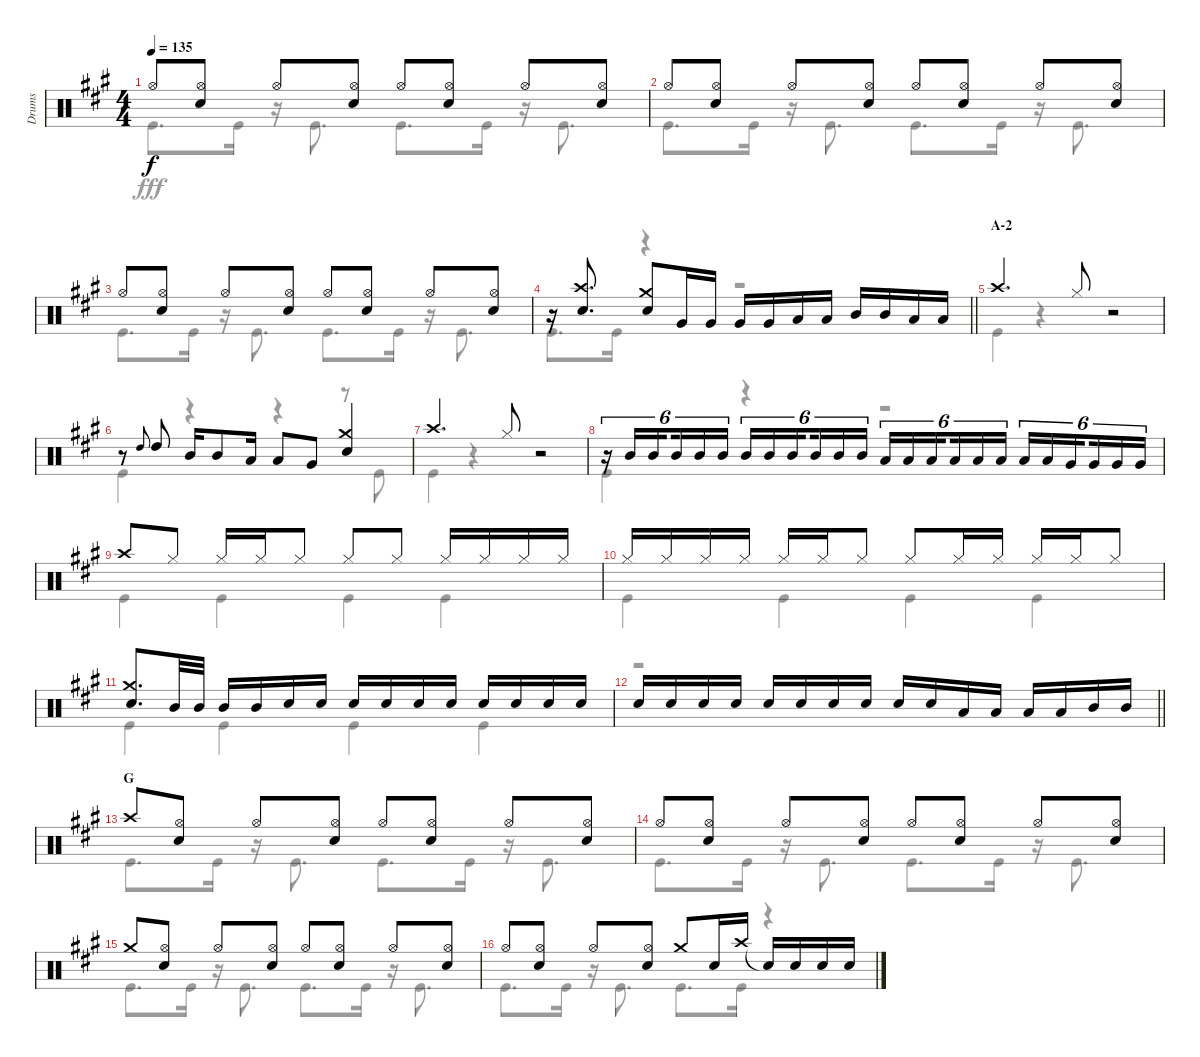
\track ("Drums" "Drums") {instrument percussion}
\staff {score}
\articulation defaults
\voice
\ts (4 4)
\tempo 135
\clef neutral
\ks a "Hi-Hat (open)".8{dy f}
("Hi-Hat (open)" "Snare (hit) 2").8 "Hi-Hat (open)".8 ("Hi-Hat (open)" "Snare (hit) 2").8 "Hi-Hat (open)".8 ("Hi-Hat (open)" "Snare (hit) 2").8 "Hi-Hat (open)".8 ("Hi-Hat (open)" "Snare (hit) 2").8 |
"Hi-Hat (open)".8 ("Hi-Hat (open)" "Snare (hit) 2").8 "Hi-Hat (open)".8 ("Hi-Hat (open)" "Snare (hit) 2").8 "Hi-Hat (open)".8 ("Hi-Hat (open)" "Snare (hit) 2").8 "Hi-Hat (open)".8 ("Hi-Hat (open)" "Snare (hit) 2").8 |
"Hi-Hat (open)".8 ("Hi-Hat (open)" "Snare (hit) 2").8 "Hi-Hat (open)".8 ("Hi-Hat (open)" "Snare (hit) 2").8 "Hi-Hat (open)".8 ("Hi-Hat (open)" "Snare (hit) 2").8 "Hi-Hat (open)".8 ("Hi-Hat (open)" "Snare (hit) 2").8 |
\barLineRight lightlight
r.16 ("Crash high (hit)" "Snare (hit) 2").8{d} ("Crash medium (hit)" "Snare (hit) 2").8 "Very Low Tom (hit)".16 "Very Low Tom (hit)".16 "Very Low Tom (hit)".16 "Very Low Tom (hit)".16 "Low Tom (hit)".16 "Low Tom (hit)".16 "Mid Tom (hit)".16 "Mid Tom (hit)".16 "Low Tom (hit)".16 "Low Tom (hit)".16 |
\section ("" "A-2")
"Crash high (hit)".4{d} "Hi-Hat (closed)".8 r.2 |
r.8 "High Tom (hit)".8{gr onbeat} "High Tom (hit)".8 "Mid Tom (hit)".16 "Mid Tom (hit)".8 "Low Tom (hit)".16 "Low Tom (hit)".8 "Very Low Tom (hit)".8 ("Crash medium (hit)" "Snare (hit) 2").4 |
"Crash high (hit)".4{d} "Hi-Hat (closed)".8 r.2 |
r.16{tu (6 4)} "Mid Tom (hit)".16{tu (6 4)} "Mid Tom (hit)".16{tu (6 4) beam splitsecondary} "Mid Tom (hit)".16{tu (6 4)} "Mid Tom (hit)".16{tu (6 4)} "Mid Tom (hit)".16{tu (6 4)} "Mid Tom (hit)".16{tu (6 4)} "Mid Tom (hit)".16{tu (6 4)} "Mid Tom (hit)".16{tu (6 4) beam splitsecondary} "Mid Tom (hit)".16{tu (6 4)} "Mid Tom (hit)".16{tu (6 4)} "Mid Tom (hit)".16{tu (6 4)} "Low Tom (hit)".16{tu (6 4)} "Low Tom (hit)".16{tu (6 4)} "Low Tom (hit)".16{tu (6 4) beam splitsecondary} "Low Tom (hit)".16{tu (6 4)} "Low Tom (hit)".16{tu (6 4)} "Low Tom (hit)".16{tu (6 4)} "Low Tom (hit)".16{tu (6 4)} "Low Tom (hit)".16{tu (6 4)} "Very Low Tom (hit)".16{tu (6 4) beam splitsecondary} "Very Low Tom (hit)".16{tu (6 4)} "Very Low Tom (hit)".16{tu (6 4)} "Very Low Tom (hit)".16{tu (6 4)} |
"Crash high (hit)".8 "Hi-Hat (closed)".8 "Hi-Hat (closed)".16 "Hi-Hat (closed)".16 "Hi-Hat (closed)".8 "Hi-Hat (closed)".8 "Hi-Hat (closed)".8 "Hi-Hat (closed)".16 "Hi-Hat (closed)".16 "Hi-Hat (closed)".16 "Hi-Hat (closed)".16 |
"Hi-Hat (closed)".16 "Hi-Hat (closed)".16 "Hi-Hat (closed)".16 "Hi-Hat (closed)".16 "Hi-Hat (closed)".16 "Hi-Hat (closed)".16 "Hi-Hat (closed)".8 "Hi-Hat (closed)".8 "Hi-Hat (closed)".16 "Hi-Hat (closed)".16 "Hi-Hat (closed)".16 "Hi-Hat (closed)".16 "Hi-Hat (closed)".8 |
("Crash medium (hit)" "Snare (hit) 2").8{d} "Mid Tom (hit)".32 "Mid Tom (hit)".32 "Mid Tom (hit)".16 "Mid Tom (hit)".16 "Snare (hit) 2".16 "Snare (hit) 2".16 "Snare (hit) 2".16 "Snare (hit) 2".16 "Snare (hit) 2".16 "Snare (hit) 2".16 "Snare (hit) 2".16 "Snare (hit) 2".16 "Snare (hit) 2".16 "Snare (hit) 2".16 |
\barLineRight lightlight "Snare (hit) 2".16 "Snare (hit) 2".16 "Snare (hit) 2".16 "Snare (hit) 2".16 "Snare (hit) 2".16 "Snare (hit) 2".16 "Snare (hit) 2".16 "Snare (hit) 2".16 "Snare (hit) 2".16 "Snare (hit) 2".16 "Low Tom (hit)".16 "Low Tom (hit)".16 "Low Tom (hit)".16 "Low Tom (hit)".16 "Mid Tom (hit)".16 "Mid Tom (hit)".16
|
\section ("" "G")
"Crash high (hit)".8 ("Hi-Hat (open)" "Snare (hit) 2").8 "Hi-Hat (open)".8 ("Hi-Hat (open)" "Snare (hit) 2").8 "Hi-Hat (open)".8 ("Hi-Hat (open)" "Snare (hit) 2").8 "Hi-Hat (open)".8 ("Hi-Hat (open)" "Snare (hit) 2").8 |
"Hi-Hat (open)".8 ("Hi-Hat (open)" "Snare (hit) 2").8 "Hi-Hat (open)".8 ("Hi-Hat (open)" "Snare (hit) 2").8 "Hi-Hat (open)".8 ("Hi-Hat (open)" "Snare (hit) 2").8 "Hi-Hat (open)".8 ("Hi-Hat (open)" "Snare (hit) 2").8 |
"Crash medium (hit)".8 ("Hi-Hat (open)" "Snare (hit) 2").8 "Hi-Hat (open)".8 ("Hi-Hat (open)" "Snare (hit) 2").8 "Hi-Hat (open)".8 ("Hi-Hat (open)" "Snare (hit) 2").8 "Hi-Hat (open)".8 ("Hi-Hat (open)" "Snare (hit) 2").8 |
"Hi-Hat (open)".8 ("Hi-Hat (open)" "Snare (hit) 2").8 "Hi-Hat (open)".8 ("Hi-Hat (open)" "Snare (hit) 2").8 "Crash medium (hit)".8 "Snare (hit) 2".16 "Crash high (hit)".16 "Snare (hit)"{t}.16 "Snare (hit) 2".16 "Snare (hit) 2".16 "Snare (hit) 2".16
\voice
\clef neutral
\ottava regular
\simile none
\ks a "Kick (hit)".8{d dy fff} "Kick (hit)".16
r.16 "Kick (hit)".8{d} "Kick (hit)".8{d} "Kick (hit)".16 r.16 "Kick (hit)".8{d} |
"Kick (hit)".8{d} "Kick (hit)".16 r.16 "Kick (hit)".8{d} "Kick (hit)".8{d} "Kick (hit)".16 r.16 "Kick (hit)".8{d} |
"Kick (hit)".8{d} "Kick (hit)".16 r.16 "Kick (hit)".8{d} "Kick (hit)".8{d} "Kick (hit)".16 r.16 "Kick (hit)".8{d} |
\barLineRight lightlight "Kick (hit)".8{d} "Kick (hit)".16
r.4 r.2 |
"Kick (hit)".4 r.4 r.2 |
"Kick (hit)".4 r.4 r.4 r.8 "Kick (hit)".8 |
"Kick (hit)".4 r.4 r.2 |
"Kick (hit)".4 r.4 r.2 |
"Kick (hit)".4 "Kick (hit)".4 "Kick (hit)".4 "Kick (hit)".4 |
"Kick (hit)".4 "Kick (hit)".4 "Kick (hit)".4 "Kick (hit)".4 |
"Kick (hit)".4 "Kick (hit)".4 "Kick (hit)".4 "Kick (hit)".4 |
\barLineRight lightlight
r.1 |
"Kick (hit)".8{d} "Kick (hit)".16 r.16 "Kick (hit)".8{d} "Kick (hit)".8{d} "Kick (hit)".16 r.16 "Kick (hit)".8{d} |
"Kick (hit)".8{d} "Kick (hit)".16 r.16 "Kick (hit)".8{d} "Kick (hit)".8{d} "Kick (hit)".16 r.16 "Kick (hit)".8{d} |
"Kick (hit)".8{d} "Kick (hit)".16 r.16 "Kick (hit)".8{d} "Kick (hit)".8{d} "Kick (hit)".16 r.16 "Kick (hit)".8{d} |
"Kick (hit)".8{d} "Kick (hit)".16 r.16 "Kick (hit)".8{d} "Kick (hit)".8{d} "Kick (hit)".16 r.4
